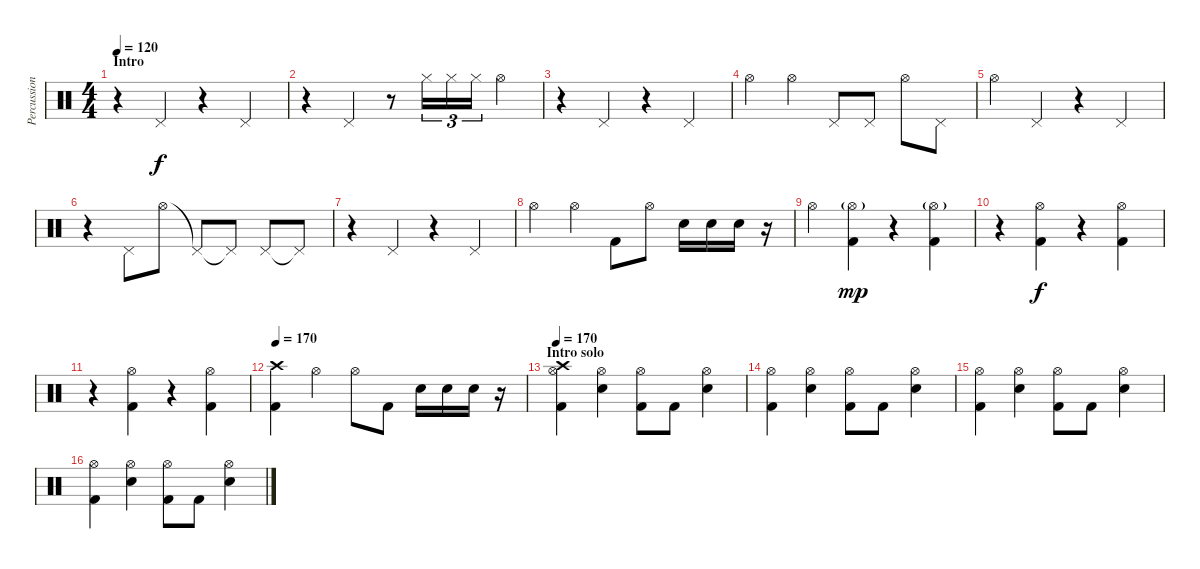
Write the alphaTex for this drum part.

\track ("Percussion - Who the fuck knows" "Percussion") {instrument percussion}
\staff {score}
\articulation defaults
\ts (4 4)
\section ("" "Intro")
\tempo 120
\clef neutral
\ks c
r.4{dy f} "Pedal Hi-Hat (hit)".4 r.4 "Pedal Hi-Hat (hit)".4 |
r.4 "Pedal Hi-Hat (hit)".4 r.8 "Hi-Hat (closed)".16{tu (3 2)} "Hi-Hat (closed)".16{tu (3 2)} "Hi-Hat (closed)".16{tu (3 2)} "Hi-Hat (open)".4 |
r.4 "Pedal Hi-Hat (hit)".4 r.4 "Pedal Hi-Hat (hit)".4 |
"Hi-Hat (open)".4 "Hi-Hat (open)".4 "Pedal Hi-Hat (hit)".8 "Pedal Hi-Hat (hit)".8 "Hi-Hat (open)".8 "Pedal Hi-Hat (hit)".8 |
"Hi-Hat (open)".4 "Pedal Hi-Hat (hit)".4 r.4 "Pedal Hi-Hat (hit)".4 |
r.4 "Pedal Hi-Hat (hit)".8 "Hi-Hat (open)".8 "Pedal Hi-Hat (hit)"{t}.8 "Pedal Hi-Hat (hit)"{t}.8 "Pedal Hi-Hat (hit)".8 "Pedal Hi-Hat (hit)"{t}.8 |
r.4 "Pedal Hi-Hat (hit)".4 r.4 "Pedal Hi-Hat (hit)".4 |
"Hi-Hat (open)".4 "Hi-Hat (open)".4 "Kick (hit) 2".8 "Hi-Hat (open)".8 "Snare (hit) 2".16 "Snare (hit) 2".16 "Snare (hit) 2".16 r.16 |
"Hi-Hat (open)".4 ("Kick (hit) 2" "Hi-Hat (open)"{g}).4{dy mp} r.4 ("Kick (hit) 2" "Hi-Hat (open)"{g}).4 |
r.4 ("Hi-Hat (open)" "Kick (hit) 2").4{dy f} r.4 ("Hi-Hat (open)" "Kick (hit) 2").4 |
r.4 ("Hi-Hat (open)" "Kick (hit) 2").4 r.4 ("Hi-Hat (open)" "Kick (hit) 2").4 |
\tempo 170
("Crash high (hit)" "Kick (hit) 2").4 "Hi-Hat (open)".4 "Hi-Hat (open)".8 "Kick (hit) 2".8 "Snare (hit) 2".16 "Snare (hit) 2".16 "Snare (hit) 2".16 r.16 |
\section ("" "Intro solo")
\tempo 170
("Hi-Hat (open)" "Kick (hit) 2" "Crash high (hit)").4 ("Hi-Hat (open)" "Snare (hit) 2").4 ("Hi-Hat (open)" "Kick (hit) 2").8 "Kick (hit) 2".8 ("Hi-Hat (open)" "Snare (hit) 2").4 |
("Hi-Hat (open)" "Kick (hit) 2").4 ("Hi-Hat (open)" "Snare (hit) 2").4 ("Hi-Hat (open)" "Kick (hit) 2").8 "Kick (hit) 2".8 ("Hi-Hat (open)" "Snare (hit) 2").4 |
("Hi-Hat (open)" "Kick (hit) 2").4 ("Hi-Hat (open)" "Snare (hit) 2").4 ("Hi-Hat (open)" "Kick (hit) 2").8 "Kick (hit) 2".8 ("Hi-Hat (open)" "Snare (hit) 2").4 |
("Hi-Hat (open)" "Kick (hit) 2").4 ("Hi-Hat (open)" "Snare (hit) 2").4 ("Hi-Hat (open)" "Kick (hit) 2").8 "Kick (hit) 2".8 ("Hi-Hat (open)" "Snare (hit) 2").4
